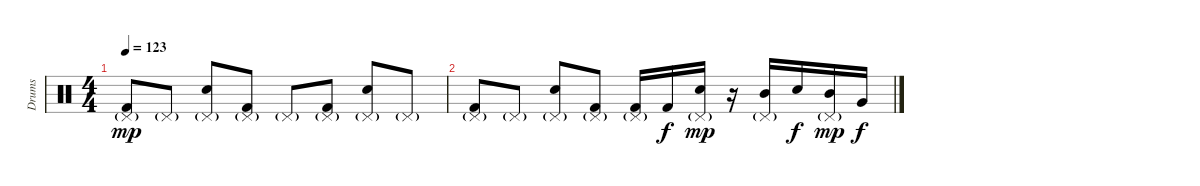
\track ("Drums" "Drums") {instrument percussion}
\staff {score}
\articulation defaults
\ts (4 4)
\tempo 123
\clef neutral
\ks c
("Pedal Hi-Hat (hit)"{g} "Kick (hit) 2").8{dy mp} "Pedal Hi-Hat (hit)"{g}.8 ("Pedal Hi-Hat (hit)"{g} "Snare (hit) 2").8 ("Pedal Hi-Hat (hit)"{g} "Kick (hit) 2").8 "Pedal Hi-Hat (hit)"{g}.8 ("Pedal Hi-Hat (hit)"{g} "Kick (hit) 2").8 ("Pedal Hi-Hat (hit)"{g} "Snare (hit) 2").8 "Pedal Hi-Hat (hit)"{g}.8 |
("Pedal Hi-Hat (hit)"{g} "Kick (hit) 2").8 "Pedal Hi-Hat (hit)"{g}.8 ("Pedal Hi-Hat (hit)"{g} "Snare (hit) 2").8 ("Pedal Hi-Hat (hit)"{g} "Kick (hit) 2").8 ("Pedal Hi-Hat (hit)"{g} "Kick (hit) 2").16 "Kick (hit) 2".16{dy f} ("Pedal Hi-Hat (hit)"{g} "Snare (hit) 2").16{dy mp} r.16 ("Pedal Hi-Hat (hit)"{g} "Mid Tom (hit)").16 "Snare (hit) 2".16{dy f} ("Pedal Hi-Hat (hit)"{g} "Mid Tom (hit)").16{dy mp} "Very Low Tom (hit)".16{dy f}
